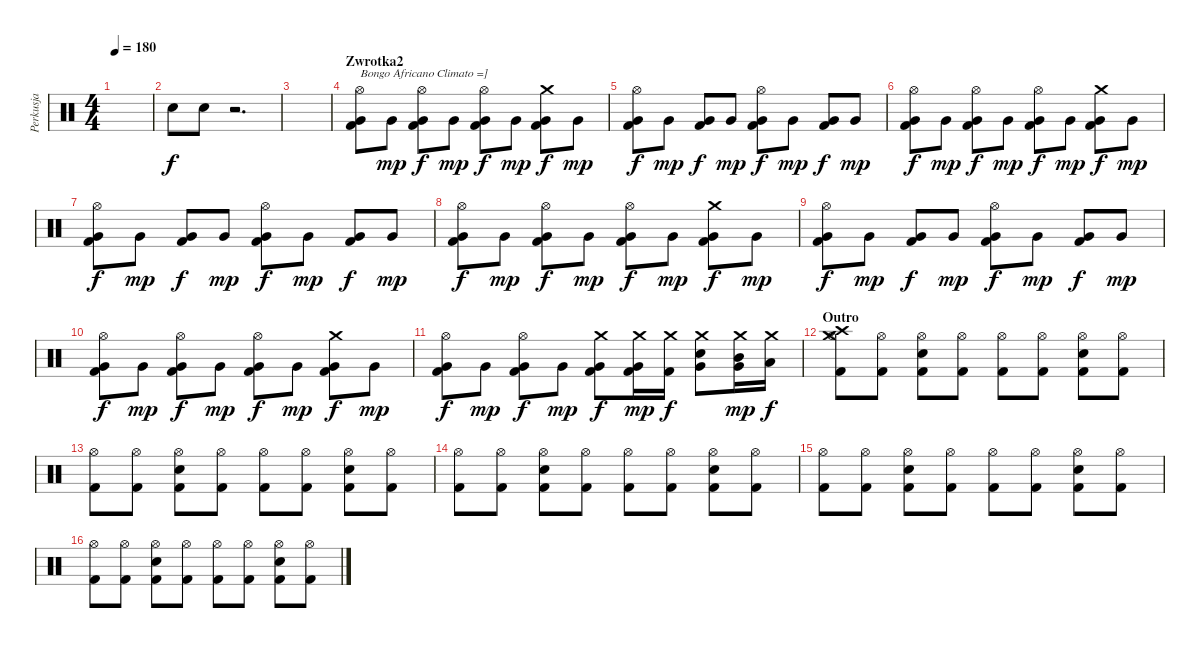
\track ("Perkusja" "Perkusja") {instrument percussion}
\staff {score}
\articulation defaults
\ts (4 4)
\tempo 180
\clef neutral
\ks c
|
"Metronome (bell)".8 "Metronome (bell)".8 r.2{d} |
|
\section ("" "Zwrotka2")
("Kick (hit) 2" "Very Low Tom (hit)" "Hi-Hat (open)").8{txt "Bongo Africano Climato =]"} "Very Low Tom (hit)".8{dy mp} ("Kick (hit) 2" "Very Low Tom (hit)" "Hi-Hat (open)").8{dy f} "Very Low Tom (hit)".8{dy mp} ("Kick (hit) 2" "Very Low Tom (hit)" "Hi-Hat (open)").8{dy f} "Very Low Tom (hit)".8{dy mp} ("Very Low Tom (hit)" "Kick (hit) 2" "Crash medium (hit)").8{dy f} "Very Low Tom (hit)".8{dy mp} |
("Kick (hit) 2" "Very Low Tom (hit)" "Hi-Hat (open)").8{dy f} "Very Low Tom (hit)".8{dy mp} ("Kick (hit) 2" "Very Low Tom (hit)").8{dy f} "Very Low Tom (hit)".8{dy mp} ("Kick (hit) 2" "Very Low Tom (hit)" "Hi-Hat (open)").8{dy f} "Very Low Tom (hit)".8{dy mp} ("Kick (hit) 2" "Very Low Tom (hit)").8{dy f} "Very Low Tom (hit)".8{dy mp} |
("Kick (hit) 2" "Very Low Tom (hit)" "Hi-Hat (open)").8{dy f} "Very Low Tom (hit)".8{dy mp} ("Kick (hit) 2" "Very Low Tom (hit)" "Hi-Hat (open)").8{dy f} "Very Low Tom (hit)".8{dy mp} ("Kick (hit) 2" "Very Low Tom (hit)" "Hi-Hat (open)").8{dy f} "Very Low Tom (hit)".8{dy mp} ("Very Low Tom (hit)" "Kick (hit) 2" "Crash medium (hit)").8{dy f} "Very Low Tom (hit)".8{dy mp} |
("Kick (hit) 2" "Very Low Tom (hit)" "Hi-Hat (open)").8{dy f} "Very Low Tom (hit)".8{dy mp} ("Kick (hit) 2" "Very Low Tom (hit)").8{dy f} "Very Low Tom (hit)".8{dy mp} ("Kick (hit) 2" "Very Low Tom (hit)" "Hi-Hat (open)").8{dy f} "Very Low Tom (hit)".8{dy mp} ("Kick (hit) 2" "Very Low Tom (hit)").8{dy f} "Very Low Tom (hit)".8{dy mp} |
("Kick (hit) 2" "Very Low Tom (hit)" "Hi-Hat (open)").8{dy f} "Very Low Tom (hit)".8{dy mp} ("Kick (hit) 2" "Very Low Tom (hit)" "Hi-Hat (open)").8{dy f} "Very Low Tom (hit)".8{dy mp} ("Kick (hit) 2" "Very Low Tom (hit)" "Hi-Hat (open)").8{dy f} "Very Low Tom (hit)".8{dy mp} ("Very Low Tom (hit)" "Kick (hit) 2" "Crash medium (hit)").8{dy f} "Very Low Tom (hit)".8{dy mp} |
("Kick (hit) 2" "Very Low Tom (hit)" "Hi-Hat (open)").8{dy f} "Very Low Tom (hit)".8{dy mp} ("Kick (hit) 2" "Very Low Tom (hit)").8{dy f} "Very Low Tom (hit)".8{dy mp} ("Kick (hit) 2" "Very Low Tom (hit)" "Hi-Hat (open)").8{dy f} "Very Low Tom (hit)".8{dy mp} ("Kick (hit) 2" "Very Low Tom (hit)").8{dy f} "Very Low Tom (hit)".8{dy mp} |
("Kick (hit) 2" "Very Low Tom (hit)" "Hi-Hat (open)").8{dy f} "Very Low Tom (hit)".8{dy mp} ("Kick (hit) 2" "Very Low Tom (hit)" "Hi-Hat (open)").8{dy f} "Very Low Tom (hit)".8{dy mp} ("Kick (hit) 2" "Very Low Tom (hit)" "Hi-Hat (open)").8{dy f} "Very Low Tom (hit)".8{dy mp} ("Very Low Tom (hit)" "Kick (hit) 2" "Crash medium (hit)").8{dy f} "Very Low Tom (hit)".8{dy mp} |
("Kick (hit) 2" "Very Low Tom (hit)" "Hi-Hat (open)").8{dy f} "Very Low Tom (hit)".8{dy mp} ("Kick (hit) 2" "Very Low Tom (hit)" "Hi-Hat (open)").8{dy f} "Very Low Tom (hit)".8{dy mp} ("Kick (hit) 2" "Very Low Tom (hit)" "Crash medium (hit)").8{dy f} ("Kick (hit) 2" "Very Low Tom (hit)" "Crash medium (hit)").16{dy mp} ("Kick (hit) 2" "Crash medium (hit)").16{dy f} ("Snare (hit) 2" "Very Low Tom (hit)" "Crash medium (hit)").8 ("Mid Tom (hit)" "Very Low Tom (hit)" "Crash medium (hit)").16{dy mp} ("Low Tom (hit)" "Crash medium (hit)").16{dy f} |
\section ("" "Outro")
("Crash medium (hit)" "Crash high (hit)" "Kick (hit) 2" "Hi-Hat (open)").8 ("Kick (hit) 2" "Hi-Hat (open)").8 ("Kick (hit) 2" "Snare (hit) 2" "Hi-Hat (open)").8 ("Hi-Hat (open)" "Kick (hit) 2").8 ("Hi-Hat (open)" "Kick (hit) 2").8 ("Kick (hit) 2" "Hi-Hat (open)").8 ("Snare (hit) 2" "Kick (hit) 2" "Hi-Hat (open)").8 ("Hi-Hat (open)" "Kick (hit) 2").8 |
("Hi-Hat (open)" "Kick (hit) 2").8 ("Kick (hit) 2" "Hi-Hat (open)").8 ("Kick (hit) 2" "Snare (hit) 2" "Hi-Hat (open)").8 ("Hi-Hat (open)" "Kick (hit) 2").8 ("Hi-Hat (open)" "Kick (hit) 2").8 ("Kick (hit) 2" "Hi-Hat (open)").8 ("Kick (hit) 2" "Snare (hit) 2" "Hi-Hat (open)").8 ("Kick (hit) 2" "Hi-Hat (open)").8 |
("Kick (hit) 2" "Hi-Hat (open)").8 ("Kick (hit) 2" "Hi-Hat (open)").8 ("Kick (hit) 2" "Snare (hit) 2" "Hi-Hat (open)").8 ("Kick (hit) 2" "Hi-Hat (open)").8 ("Hi-Hat (open)" "Kick (hit) 2").8 ("Kick (hit) 2" "Hi-Hat (open)").8 ("Kick (hit) 2" "Hi-Hat (open)" "Snare (hit) 2").8 ("Hi-Hat (open)" "Kick (hit) 2").8 |
("Kick (hit) 2" "Hi-Hat (open)").8 ("Kick (hit) 2" "Hi-Hat (open)").8 ("Hi-Hat (open)" "Kick (hit) 2" "Snare (hit) 2").8 ("Hi-Hat (open)" "Kick (hit) 2").8 ("Hi-Hat (open)" "Kick (hit) 2").8 ("Kick (hit) 2" "Hi-Hat (open)").8 ("Hi-Hat (open)" "Kick (hit) 2" "Snare (hit) 2").8 ("Hi-Hat (open)" "Kick (hit) 2").8 |
("Hi-Hat (open)" "Kick (hit) 2").8 ("Kick (hit) 2" "Hi-Hat (open)").8 ("Kick (hit) 2" "Hi-Hat (open)" "Snare (hit) 2").8 ("Hi-Hat (open)" "Kick (hit) 2").8 ("Hi-Hat (open)" "Kick (hit) 2").8 ("Kick (hit) 2" "Hi-Hat (open)").8 ("Hi-Hat (open)" "Kick (hit) 2" "Snare (hit) 2").8 ("Hi-Hat (open)" "Kick (hit) 2").8
